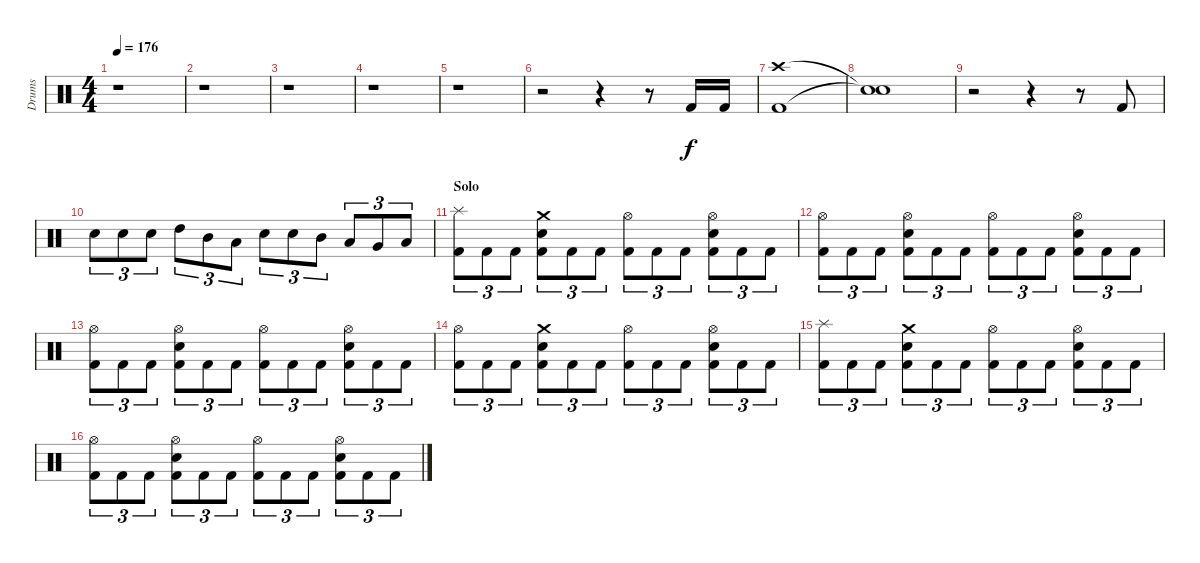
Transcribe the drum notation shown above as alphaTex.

\track ("Drums" "Drums") {instrument percussion}
\staff {score}
\articulation defaults
\ts (4 4)
\tempo 176
\clef neutral
\ks c
r.1{dy f} |
r.1 |
r.1 |
r.1 |
r.1 |
\section ("" "")
r.2 r.4 r.8 "Kick (hit) 2".16 "Kick (hit) 2".16 |
("Kick (hit) 2" "Crash high (hit)").1 |
("Snare (hit)"{t} "Snare (hit)"{t}).1 |
r.2 r.4 r.8 "Kick (hit) 2".8 |
"Electric Snare (hit)".8{tu (3 2)} "Electric Snare (hit)".8{tu (3 2)} "Electric Snare (hit)".8{tu (3 2)} "High Tom (hit)".8{tu (3 2)} "Mid Tom (hit)".8{tu (3 2)} "Low Tom (hit)".8{tu (3 2)} "Electric Snare (hit)".8{tu (3 2)} "Electric Snare (hit)".8{tu (3 2)} "Mid Tom (hit)".8{tu (3 2)} "Low Tom (hit)".8{tu (3 2)} "Very Low Tom (hit)".8{tu (3 2)} "Low Floor Tom (hit)".8{tu (3 2)} |
\section ("" "Solo")
("Kick (hit) 2" "Splash (hit)").8{tu (3 2)} "Kick (hit) 2".8{tu (3 2)} "Kick (hit) 2".8{tu (3 2)} ("Kick (hit) 2" "Electric Snare (hit)" "Crash medium (hit)").8{tu (3 2)} "Kick (hit) 2".8{tu (3 2)} "Kick (hit) 2".8{tu (3 2)} ("Kick (hit) 2" "Hi-Hat (open)").8{tu (3 2)} "Kick (hit) 2".8{tu (3 2)} "Kick (hit) 2".8{tu (3 2)} ("Kick (hit) 2" "Electric Snare (hit)" "Hi-Hat (open)").8{tu (3 2)} "Kick (hit) 2".8{tu (3 2)} "Kick (hit) 2".8{tu (3 2)} |
("Kick (hit) 2" "Hi-Hat (open)").8{tu (3 2)} "Kick (hit) 2".8{tu (3 2)} "Kick (hit) 2".8{tu (3 2)} ("Kick (hit) 2" "Electric Snare (hit)" "Hi-Hat (open)").8{tu (3 2)} "Kick (hit) 2".8{tu (3 2)} "Kick (hit) 2".8{tu (3 2)} ("Kick (hit) 2" "Hi-Hat (open)").8{tu (3 2)} "Kick (hit) 2".8{tu (3 2)} "Kick (hit) 2".8{tu (3 2)} ("Kick (hit) 2" "Electric Snare (hit)" "Hi-Hat (open)").8{tu (3 2)} "Kick (hit) 2".8{tu (3 2)} "Kick (hit) 2".8{tu (3 2)} |
("Kick (hit) 2" "Hi-Hat (open)").8{tu (3 2)} "Kick (hit) 2".8{tu (3 2)} "Kick (hit) 2".8{tu (3 2)} ("Kick (hit) 2" "Electric Snare (hit)" "Hi-Hat (open)").8{tu (3 2)} "Kick (hit) 2".8{tu (3 2)} "Kick (hit) 2".8{tu (3 2)} ("Kick (hit) 2" "Hi-Hat (open)").8{tu (3 2)} "Kick (hit) 2".8{tu (3 2)} "Kick (hit) 2".8{tu (3 2)} ("Kick (hit) 2" "Electric Snare (hit)" "Hi-Hat (open)").8{tu (3 2)} "Kick (hit) 2".8{tu (3 2)} "Kick (hit) 2".8{tu (3 2)} |
("Kick (hit) 2" "Hi-Hat (open)").8{tu (3 2)} "Kick (hit) 2".8{tu (3 2)} "Kick (hit) 2".8{tu (3 2)} ("Kick (hit) 2" "Electric Snare (hit)" "Crash medium (hit)").8{tu (3 2)} "Kick (hit) 2".8{tu (3 2)} "Kick (hit) 2".8{tu (3 2)} ("Kick (hit) 2" "Hi-Hat (open)").8{tu (3 2)} "Kick (hit) 2".8{tu (3 2)} "Kick (hit) 2".8{tu (3 2)} ("Kick (hit) 2" "Electric Snare (hit)" "Hi-Hat (open)").8{tu (3 2)} "Kick (hit) 2".8{tu (3 2)} "Kick (hit) 2".8{tu (3 2)} |
("Kick (hit) 2" "Splash (hit)").8{tu (3 2)} "Kick (hit) 2".8{tu (3 2)} "Kick (hit) 2".8{tu (3 2)} ("Kick (hit) 2" "Electric Snare (hit)" "Crash medium (hit)").8{tu (3 2)} "Kick (hit) 2".8{tu (3 2)} "Kick (hit) 2".8{tu (3 2)} ("Kick (hit) 2" "Hi-Hat (open)").8{tu (3 2)} "Kick (hit) 2".8{tu (3 2)} "Kick (hit) 2".8{tu (3 2)} ("Kick (hit) 2" "Electric Snare (hit)" "Hi-Hat (open)").8{tu (3 2)} "Kick (hit) 2".8{tu (3 2)} "Kick (hit) 2".8{tu (3 2)} |
("Kick (hit) 2" "Hi-Hat (open)").8{tu (3 2)} "Kick (hit) 2".8{tu (3 2)} "Kick (hit) 2".8{tu (3 2)} ("Kick (hit) 2" "Electric Snare (hit)" "Hi-Hat (open)").8{tu (3 2)} "Kick (hit) 2".8{tu (3 2)} "Kick (hit) 2".8{tu (3 2)} ("Kick (hit) 2" "Hi-Hat (open)").8{tu (3 2)} "Kick (hit) 2".8{tu (3 2)} "Kick (hit) 2".8{tu (3 2)} ("Kick (hit) 2" "Electric Snare (hit)" "Hi-Hat (open)").8{tu (3 2)} "Kick (hit) 2".8{tu (3 2)} "Kick (hit) 2".8{tu (3 2)}
